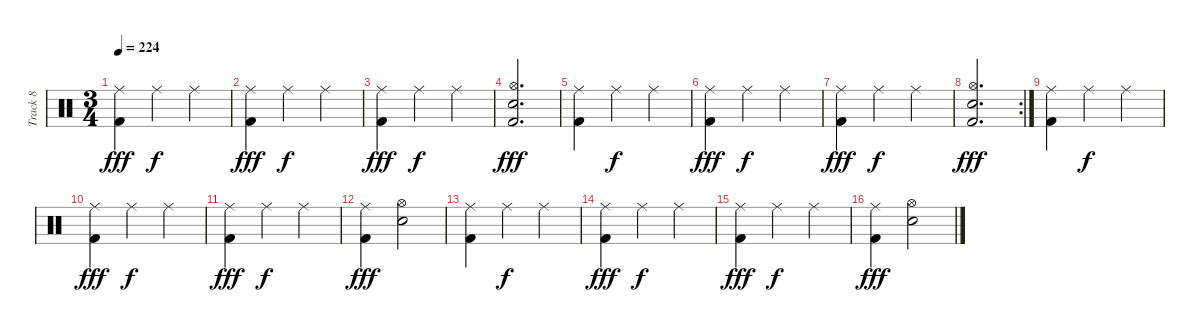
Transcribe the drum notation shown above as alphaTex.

\track ("Track 8" "Track 8") {instrument percussion}
\staff {score}
\articulation defaults
\ts (3 4)
\tempo 224
\clef neutral
\ks c
("Ride (middle)" "Kick (hit) 2").4{dy fff} "Ride (middle)".4{dy f} "Ride (middle)".4 |
("Ride (middle)" "Kick (hit) 2").4{dy fff} "Ride (middle)".4{dy f} "Ride (middle)".4 |
("Ride (middle)" "Kick (hit) 2").4{dy fff} "Ride (middle)".4{dy f} "Ride (middle)".4 |
("Hi-Hat (open)" "Kick (hit) 2" "Snare (hit)").2{d dy fff} |
("Ride (middle)" "Kick (hit) 2").4 "Ride (middle)".4{dy f} "Ride (middle)".4 |
("Ride (middle)" "Kick (hit) 2").4{dy fff} "Ride (middle)".4{dy f} "Ride (middle)".4 |
("Ride (middle)" "Kick (hit) 2").4{dy fff} "Ride (middle)".4{dy f} "Ride (middle)".4 |
\rc 2
("Hi-Hat (open)" "Kick (hit) 2" "Snare (hit)").2{d dy fff} |
("Ride (middle)" "Kick (hit) 2").4 "Ride (middle)".4{dy f} "Ride (middle)".4 |
("Ride (middle)" "Kick (hit) 2").4{dy fff} "Ride (middle)".4{dy f} "Ride (middle)".4 |
("Ride (middle)" "Kick (hit) 2").4{dy fff} "Ride (middle)".4{dy f} "Ride (middle)".4 |
("Ride (middle)" "Kick (hit) 2").4{dy fff} ("Hi-Hat (open)" "Snare (hit)").2 |
("Ride (middle)" "Kick (hit) 2").4 "Ride (middle)".4{dy f} "Ride (middle)".4 |
("Ride (middle)" "Kick (hit) 2").4{dy fff} "Ride (middle)".4{dy f} "Ride (middle)".4 |
("Ride (middle)" "Kick (hit) 2").4{dy fff} "Ride (middle)".4{dy f} "Ride (middle)".4 |
("Ride (middle)" "Kick (hit) 2").4{dy fff} ("Hi-Hat (open)" "Snare (hit)").2
